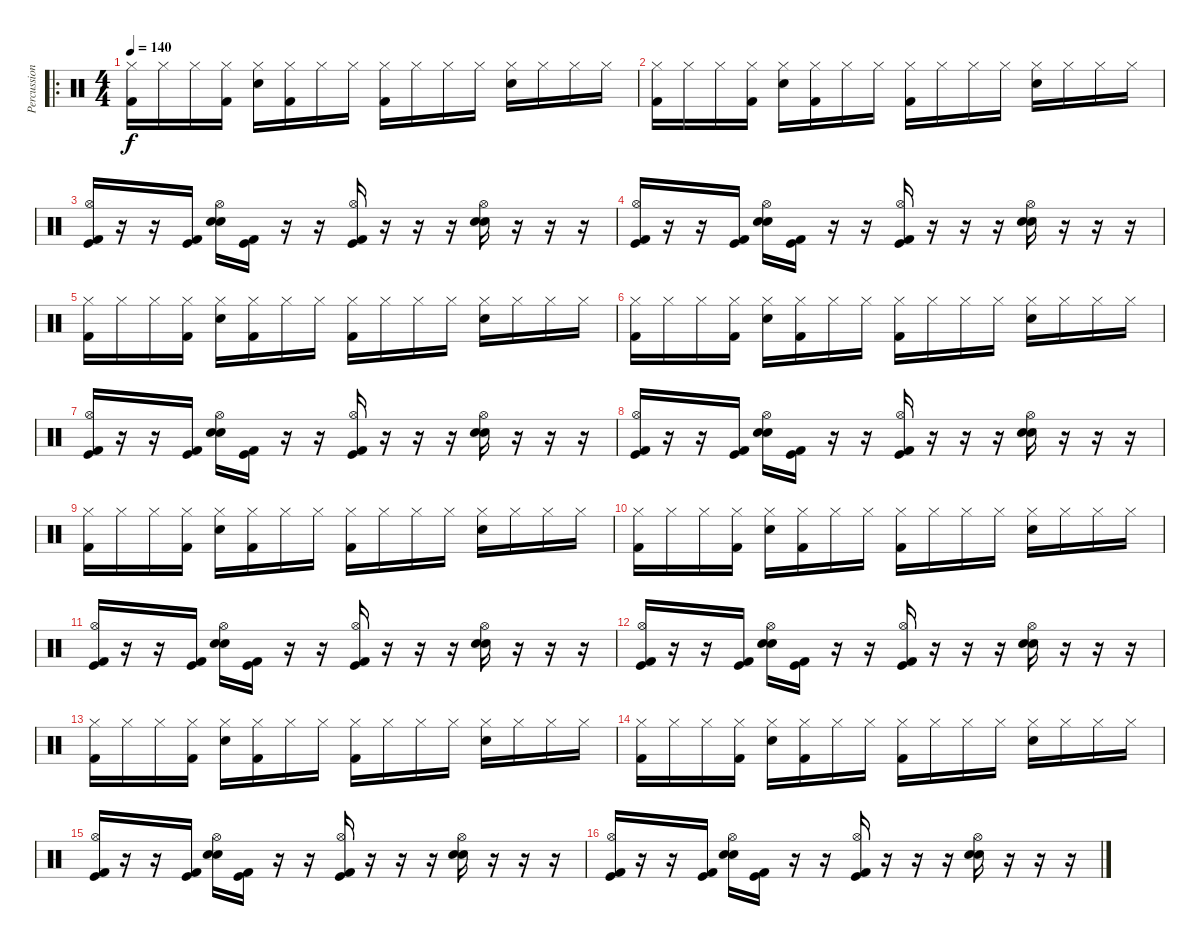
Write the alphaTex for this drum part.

\track ("Percussion" "Percussion") {instrument percussion}
\staff {score}
\articulation defaults
\ro
\ts (4 4)
\tempo 140
\clef neutral
\ks c
("Hi-Hat (closed)" "Kick (hit) 2").16{dy f} "Hi-Hat (closed)".16 "Hi-Hat (closed)".16 ("Hi-Hat (closed)" "Kick (hit) 2").16 ("Hi-Hat (closed)" "Electric Snare (hit)").16 ("Hi-Hat (closed)" "Kick (hit) 2").16 "Hi-Hat (closed)".16 "Hi-Hat (closed)".16 ("Hi-Hat (closed)" "Kick (hit) 2").16 "Hi-Hat (closed)".16 "Hi-Hat (closed)".16 "Hi-Hat (closed)".16 ("Hi-Hat (closed)" "Electric Snare (hit)").16 "Hi-Hat (closed)".16 "Hi-Hat (closed)".16 "Hi-Hat (closed)".16 |
("Hi-Hat (closed)" "Kick (hit) 2").16 "Hi-Hat (closed)".16 "Hi-Hat (closed)".16 ("Hi-Hat (closed)" "Kick (hit) 2").16 ("Hi-Hat (closed)" "Electric Snare (hit)").16 ("Hi-Hat (closed)" "Kick (hit) 2").16 "Hi-Hat (closed)".16 "Hi-Hat (closed)".16 ("Hi-Hat (closed)" "Kick (hit) 2").16 "Hi-Hat (closed)".16 "Hi-Hat (closed)".16 "Hi-Hat (closed)".16 ("Hi-Hat (closed)" "Electric Snare (hit)").16 "Hi-Hat (closed)".16 "Hi-Hat (closed)".16 "Hi-Hat (closed)".16 |
("Hi-Hat (open)" "Kick (hit)" "Kick (hit) 2").16 r.16 r.16 ("Kick (hit)" "Kick (hit) 2").16 ("Hi-Hat (open)" "Electric Snare (hit)" "Electric Snare (hit)").16 ("Kick (hit)" "Kick (hit) 2").16 r.16 r.16 ("Hi-Hat (open)" "Kick (hit)" "Kick (hit) 2").16 r.16 r.16 r.16 ("Hi-Hat (open)" "Electric Snare (hit)" "Electric Snare (hit)").16 r.16 r.16 r.16 |
("Hi-Hat (open)" "Kick (hit)" "Kick (hit) 2").16 r.16 r.16 ("Kick (hit)" "Kick (hit) 2").16 ("Hi-Hat (open)" "Electric Snare (hit)" "Electric Snare (hit)").16 ("Kick (hit)" "Kick (hit) 2").16 r.16 r.16 ("Hi-Hat (open)" "Kick (hit)" "Kick (hit) 2").16 r.16 r.16 r.16 ("Hi-Hat (open)" "Electric Snare (hit)" "Electric Snare (hit)").16 r.16 r.16 r.16 |
("Hi-Hat (closed)" "Kick (hit) 2").16 "Hi-Hat (closed)".16 "Hi-Hat (closed)".16 ("Hi-Hat (closed)" "Kick (hit) 2").16 ("Hi-Hat (closed)" "Electric Snare (hit)").16 ("Hi-Hat (closed)" "Kick (hit) 2").16 "Hi-Hat (closed)".16 "Hi-Hat (closed)".16 ("Hi-Hat (closed)" "Kick (hit) 2").16 "Hi-Hat (closed)".16 "Hi-Hat (closed)".16 "Hi-Hat (closed)".16 ("Hi-Hat (closed)" "Electric Snare (hit)").16 "Hi-Hat (closed)".16 "Hi-Hat (closed)".16 "Hi-Hat (closed)".16 |
("Hi-Hat (closed)" "Kick (hit) 2").16 "Hi-Hat (closed)".16 "Hi-Hat (closed)".16 ("Hi-Hat (closed)" "Kick (hit) 2").16 ("Hi-Hat (closed)" "Electric Snare (hit)").16 ("Hi-Hat (closed)" "Kick (hit) 2").16 "Hi-Hat (closed)".16 "Hi-Hat (closed)".16 ("Hi-Hat (closed)" "Kick (hit) 2").16 "Hi-Hat (closed)".16 "Hi-Hat (closed)".16 "Hi-Hat (closed)".16 ("Hi-Hat (closed)" "Electric Snare (hit)").16 "Hi-Hat (closed)".16 "Hi-Hat (closed)".16 "Hi-Hat (closed)".16 |
("Hi-Hat (open)" "Kick (hit)" "Kick (hit) 2").16 r.16 r.16 ("Kick (hit)" "Kick (hit) 2").16 ("Hi-Hat (open)" "Electric Snare (hit)" "Electric Snare (hit)").16 ("Kick (hit)" "Kick (hit) 2").16 r.16 r.16 ("Hi-Hat (open)" "Kick (hit)" "Kick (hit) 2").16 r.16 r.16 r.16 ("Hi-Hat (open)" "Electric Snare (hit)" "Electric Snare (hit)").16 r.16 r.16 r.16 |
("Hi-Hat (open)" "Kick (hit)" "Kick (hit) 2").16 r.16 r.16 ("Kick (hit)" "Kick (hit) 2").16 ("Hi-Hat (open)" "Electric Snare (hit)" "Electric Snare (hit)").16 ("Kick (hit)" "Kick (hit) 2").16 r.16 r.16 ("Hi-Hat (open)" "Kick (hit)" "Kick (hit) 2").16 r.16 r.16 r.16 ("Hi-Hat (open)" "Electric Snare (hit)" "Electric Snare (hit)").16 r.16 r.16 r.16 |
("Hi-Hat (closed)" "Kick (hit) 2").16 "Hi-Hat (closed)".16 "Hi-Hat (closed)".16 ("Hi-Hat (closed)" "Kick (hit) 2").16 ("Hi-Hat (closed)" "Electric Snare (hit)").16 ("Hi-Hat (closed)" "Kick (hit) 2").16 "Hi-Hat (closed)".16 "Hi-Hat (closed)".16 ("Hi-Hat (closed)" "Kick (hit) 2").16 "Hi-Hat (closed)".16 "Hi-Hat (closed)".16 "Hi-Hat (closed)".16 ("Hi-Hat (closed)" "Electric Snare (hit)").16 "Hi-Hat (closed)".16 "Hi-Hat (closed)".16 "Hi-Hat (closed)".16 |
("Hi-Hat (closed)" "Kick (hit) 2").16 "Hi-Hat (closed)".16 "Hi-Hat (closed)".16 ("Hi-Hat (closed)" "Kick (hit) 2").16 ("Hi-Hat (closed)" "Electric Snare (hit)").16 ("Hi-Hat (closed)" "Kick (hit) 2").16 "Hi-Hat (closed)".16 "Hi-Hat (closed)".16 ("Hi-Hat (closed)" "Kick (hit) 2").16 "Hi-Hat (closed)".16 "Hi-Hat (closed)".16 "Hi-Hat (closed)".16 ("Hi-Hat (closed)" "Electric Snare (hit)").16 "Hi-Hat (closed)".16 "Hi-Hat (closed)".16 "Hi-Hat (closed)".16 |
("Hi-Hat (open)" "Kick (hit)" "Kick (hit) 2").16 r.16 r.16 ("Kick (hit)" "Kick (hit) 2").16 ("Hi-Hat (open)" "Electric Snare (hit)" "Electric Snare (hit)").16 ("Kick (hit)" "Kick (hit) 2").16 r.16 r.16 ("Hi-Hat (open)" "Kick (hit)" "Kick (hit) 2").16 r.16 r.16 r.16 ("Hi-Hat (open)" "Electric Snare (hit)" "Electric Snare (hit)").16 r.16 r.16 r.16 |
("Hi-Hat (open)" "Kick (hit)" "Kick (hit) 2").16 r.16 r.16 ("Kick (hit)" "Kick (hit) 2").16 ("Hi-Hat (open)" "Electric Snare (hit)" "Electric Snare (hit)").16 ("Kick (hit)" "Kick (hit) 2").16 r.16 r.16 ("Hi-Hat (open)" "Kick (hit)" "Kick (hit) 2").16 r.16 r.16 r.16 ("Hi-Hat (open)" "Electric Snare (hit)" "Electric Snare (hit)").16 r.16 r.16 r.16 |
("Hi-Hat (closed)" "Kick (hit) 2").16 "Hi-Hat (closed)".16 "Hi-Hat (closed)".16 ("Hi-Hat (closed)" "Kick (hit) 2").16 ("Hi-Hat (closed)" "Electric Snare (hit)").16 ("Hi-Hat (closed)" "Kick (hit) 2").16 "Hi-Hat (closed)".16 "Hi-Hat (closed)".16 ("Hi-Hat (closed)" "Kick (hit) 2").16 "Hi-Hat (closed)".16 "Hi-Hat (closed)".16 "Hi-Hat (closed)".16 ("Hi-Hat (closed)" "Electric Snare (hit)").16 "Hi-Hat (closed)".16 "Hi-Hat (closed)".16 "Hi-Hat (closed)".16 |
("Hi-Hat (closed)" "Kick (hit) 2").16 "Hi-Hat (closed)".16 "Hi-Hat (closed)".16 ("Hi-Hat (closed)" "Kick (hit) 2").16 ("Hi-Hat (closed)" "Electric Snare (hit)").16 ("Hi-Hat (closed)" "Kick (hit) 2").16 "Hi-Hat (closed)".16 "Hi-Hat (closed)".16 ("Hi-Hat (closed)" "Kick (hit) 2").16 "Hi-Hat (closed)".16 "Hi-Hat (closed)".16 "Hi-Hat (closed)".16 ("Hi-Hat (closed)" "Electric Snare (hit)").16 "Hi-Hat (closed)".16 "Hi-Hat (closed)".16 "Hi-Hat (closed)".16 |
("Hi-Hat (open)" "Kick (hit)" "Kick (hit) 2").16 r.16 r.16 ("Kick (hit)" "Kick (hit) 2").16 ("Hi-Hat (open)" "Electric Snare (hit)" "Electric Snare (hit)").16 ("Kick (hit)" "Kick (hit) 2").16 r.16 r.16 ("Hi-Hat (open)" "Kick (hit)" "Kick (hit) 2").16 r.16 r.16 r.16 ("Hi-Hat (open)" "Electric Snare (hit)" "Electric Snare (hit)").16 r.16 r.16 r.16 |
("Hi-Hat (open)" "Kick (hit)" "Kick (hit) 2").16 r.16 r.16 ("Kick (hit)" "Kick (hit) 2").16 ("Hi-Hat (open)" "Electric Snare (hit)" "Electric Snare (hit)").16 ("Kick (hit)" "Kick (hit) 2").16 r.16 r.16 ("Hi-Hat (open)" "Kick (hit)" "Kick (hit) 2").16 r.16 r.16 r.16 ("Hi-Hat (open)" "Electric Snare (hit)" "Electric Snare (hit)").16 r.16 r.16 r.16
